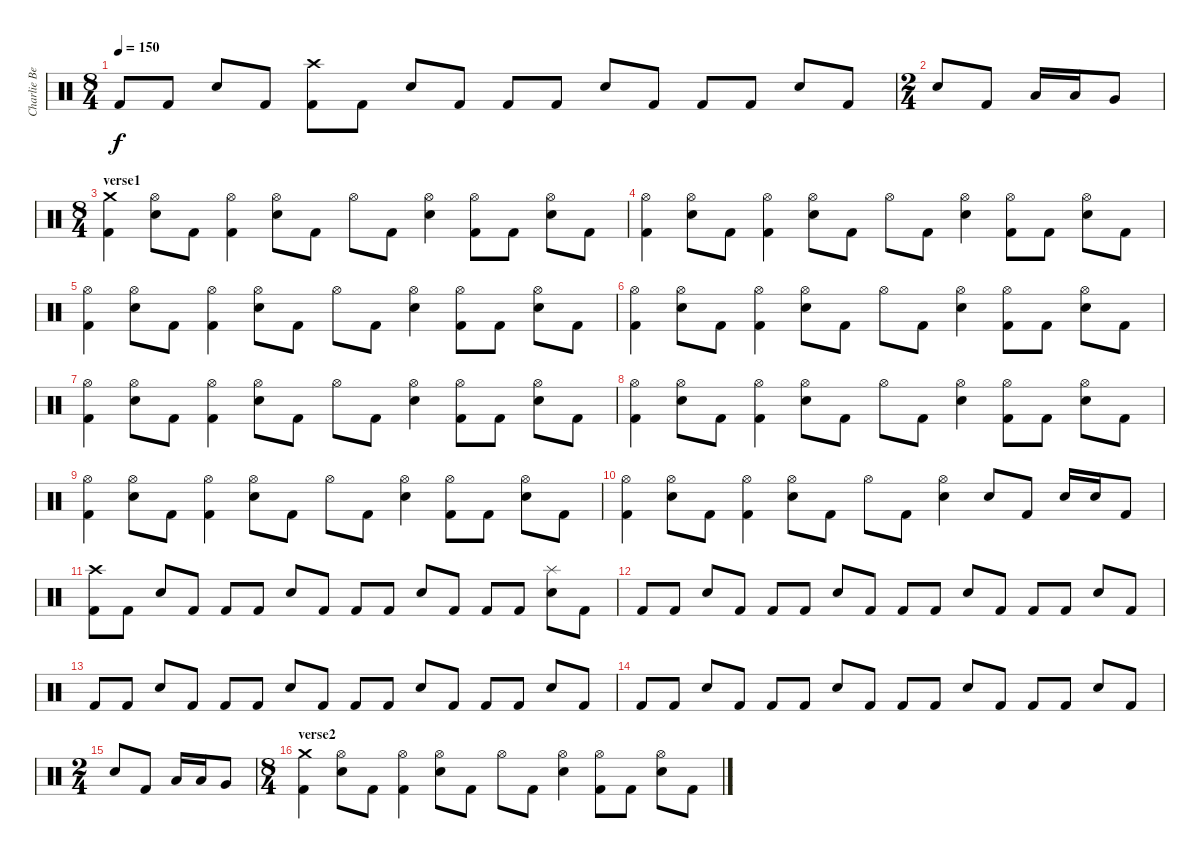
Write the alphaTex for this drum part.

\track ("Charlie Benante" "Charlie Be") {instrument percussion}
\staff {score}
\articulation defaults
\ts (8 4)
\tempo 150
\clef neutral
\ks c "Kick (hit) 2".8{dy f} "Kick (hit) 2".8 "Electric Snare (hit)".8 "Kick (hit) 2".8
("Crash high (hit)" "Kick (hit) 2").8 "Kick (hit) 2".8 "Electric Snare (hit)".8 "Kick (hit) 2".8 "Kick (hit) 2".8 "Kick (hit) 2".8 "Electric Snare (hit)".8 "Kick (hit) 2".8 "Kick (hit) 2".8 "Kick (hit) 2".8 "Electric Snare (hit)".8 "Kick (hit) 2".8 |
\ts (2 4)
"Electric Snare (hit)".8 "Kick (hit) 2".8 "Low Tom (hit)".16 "Low Tom (hit)".16 "Very Low Tom (hit)".8 |
\ts (8 4)
\section ("" "verse1")
("Crash medium (hit)" "Kick (hit) 2").4 ("Hi-Hat (open)" "Electric Snare (hit)").8 "Kick (hit) 2".8 ("Hi-Hat (open)" "Kick (hit) 2").4 ("Hi-Hat (open)" "Electric Snare (hit)").8 "Kick (hit) 2".8 "Hi-Hat (open)".8 "Kick (hit) 2".8 ("Hi-Hat (open)" "Electric Snare (hit)").4 ("Hi-Hat (open)" "Kick (hit) 2").8 "Kick (hit) 2".8 ("Hi-Hat (open)" "Electric Snare (hit)").8 "Kick (hit) 2".8 |
("Hi-Hat (open)" "Kick (hit) 2").4 ("Hi-Hat (open)" "Electric Snare (hit)").8 "Kick (hit) 2".8 ("Hi-Hat (open)" "Kick (hit) 2").4 ("Hi-Hat (open)" "Electric Snare (hit)").8 "Kick (hit) 2".8 "Hi-Hat (open)".8 "Kick (hit) 2".8 ("Hi-Hat (open)" "Electric Snare (hit)").4 ("Hi-Hat (open)" "Kick (hit) 2").8 "Kick (hit) 2".8 ("Hi-Hat (open)" "Electric Snare (hit)").8 "Kick (hit) 2".8 |
("Hi-Hat (open)" "Kick (hit) 2").4 ("Hi-Hat (open)" "Electric Snare (hit)").8 "Kick (hit) 2".8 ("Hi-Hat (open)" "Kick (hit) 2").4 ("Hi-Hat (open)" "Electric Snare (hit)").8 "Kick (hit) 2".8 "Hi-Hat (open)".8 "Kick (hit) 2".8 ("Hi-Hat (open)" "Electric Snare (hit)").4 ("Hi-Hat (open)" "Kick (hit) 2").8 "Kick (hit) 2".8 ("Hi-Hat (open)" "Electric Snare (hit)").8 "Kick (hit) 2".8 |
("Hi-Hat (open)" "Kick (hit) 2").4 ("Hi-Hat (open)" "Electric Snare (hit)").8 "Kick (hit) 2".8 ("Hi-Hat (open)" "Kick (hit) 2").4 ("Hi-Hat (open)" "Electric Snare (hit)").8 "Kick (hit) 2".8 "Hi-Hat (open)".8 "Kick (hit) 2".8 ("Hi-Hat (open)" "Electric Snare (hit)").4 ("Hi-Hat (open)" "Kick (hit) 2").8 "Kick (hit) 2".8 ("Hi-Hat (open)" "Electric Snare (hit)").8 "Kick (hit) 2".8 |
("Hi-Hat (open)" "Kick (hit) 2").4 ("Hi-Hat (open)" "Electric Snare (hit)").8 "Kick (hit) 2".8 ("Hi-Hat (open)" "Kick (hit) 2").4 ("Hi-Hat (open)" "Electric Snare (hit)").8 "Kick (hit) 2".8 "Hi-Hat (open)".8 "Kick (hit) 2".8 ("Hi-Hat (open)" "Electric Snare (hit)").4 ("Hi-Hat (open)" "Kick (hit) 2").8 "Kick (hit) 2".8 ("Hi-Hat (open)" "Electric Snare (hit)").8 "Kick (hit) 2".8 |
("Hi-Hat (open)" "Kick (hit) 2").4 ("Hi-Hat (open)" "Electric Snare (hit)").8 "Kick (hit) 2".8 ("Hi-Hat (open)" "Kick (hit) 2").4 ("Hi-Hat (open)" "Electric Snare (hit)").8 "Kick (hit) 2".8 "Hi-Hat (open)".8 "Kick (hit) 2".8 ("Hi-Hat (open)" "Electric Snare (hit)").4 ("Hi-Hat (open)" "Kick (hit) 2").8 "Kick (hit) 2".8 ("Hi-Hat (open)" "Electric Snare (hit)").8 "Kick (hit) 2".8 |
("Hi-Hat (open)" "Kick (hit) 2").4 ("Hi-Hat (open)" "Electric Snare (hit)").8 "Kick (hit) 2".8 ("Hi-Hat (open)" "Kick (hit) 2").4 ("Hi-Hat (open)" "Electric Snare (hit)").8 "Kick (hit) 2".8 "Hi-Hat (open)".8 "Kick (hit) 2".8 ("Hi-Hat (open)" "Electric Snare (hit)").4 ("Hi-Hat (open)" "Kick (hit) 2").8 "Kick (hit) 2".8 ("Hi-Hat (open)" "Electric Snare (hit)").8 "Kick (hit) 2".8 |
("Hi-Hat (open)" "Kick (hit) 2").4 ("Hi-Hat (open)" "Electric Snare (hit)").8 "Kick (hit) 2".8 ("Hi-Hat (open)" "Kick (hit) 2").4 ("Hi-Hat (open)" "Electric Snare (hit)").8 "Kick (hit) 2".8 "Hi-Hat (open)".8 "Kick (hit) 2".8 ("Hi-Hat (open)" "Electric Snare (hit)").4 "Electric Snare (hit)".8 "Kick (hit) 2".8 "Electric Snare (hit)".16 "Electric Snare (hit)".16 "Kick (hit) 2".8 |
("Crash high (hit)" "Kick (hit) 2").8 "Kick (hit) 2".8 "Electric Snare (hit)".8 "Kick (hit) 2".8 "Kick (hit) 2".8 "Kick (hit) 2".8 "Electric Snare (hit)".8 "Kick (hit) 2".8 "Kick (hit) 2".8 "Kick (hit) 2".8 "Electric Snare (hit)".8 "Kick (hit) 2".8 "Kick (hit) 2".8 "Kick (hit) 2".8 ("Splash (hit)" "Electric Snare (hit)").8 "Kick (hit) 2".8 |
"Kick (hit) 2".8 "Kick (hit) 2".8 "Electric Snare (hit)".8 "Kick (hit) 2".8 "Kick (hit) 2".8 "Kick (hit) 2".8 "Electric Snare (hit)".8 "Kick (hit) 2".8 "Kick (hit) 2".8 "Kick (hit) 2".8 "Electric Snare (hit)".8 "Kick (hit) 2".8 "Kick (hit) 2".8 "Kick (hit) 2".8 "Electric Snare (hit)".8 "Kick (hit) 2".8 |
"Kick (hit) 2".8 "Kick (hit) 2".8 "Electric Snare (hit)".8 "Kick (hit) 2".8 "Kick (hit) 2".8 "Kick (hit) 2".8 "Electric Snare (hit)".8 "Kick (hit) 2".8 "Kick (hit) 2".8 "Kick (hit) 2".8 "Electric Snare (hit)".8 "Kick (hit) 2".8 "Kick (hit) 2".8 "Kick (hit) 2".8 "Electric Snare (hit)".8 "Kick (hit) 2".8 |
"Kick (hit) 2".8 "Kick (hit) 2".8 "Electric Snare (hit)".8 "Kick (hit) 2".8 "Kick (hit) 2".8 "Kick (hit) 2".8 "Electric Snare (hit)".8 "Kick (hit) 2".8 "Kick (hit) 2".8 "Kick (hit) 2".8 "Electric Snare (hit)".8 "Kick (hit) 2".8 "Kick (hit) 2".8 "Kick (hit) 2".8 "Electric Snare (hit)".8 "Kick (hit) 2".8 |
\ts (2 4)
"Electric Snare (hit)".8 "Kick (hit) 2".8 "Low Tom (hit)".16 "Low Tom (hit)".16 "Very Low Tom (hit)".8 |
\ts (8 4)
\section ("" "verse2")
("Crash medium (hit)" "Kick (hit) 2").4 ("Hi-Hat (open)" "Electric Snare (hit)").8 "Kick (hit) 2".8 ("Hi-Hat (open)" "Kick (hit) 2").4 ("Hi-Hat (open)" "Electric Snare (hit)").8 "Kick (hit) 2".8 "Hi-Hat (open)".8 "Kick (hit) 2".8 ("Hi-Hat (open)" "Electric Snare (hit)").4 ("Hi-Hat (open)" "Kick (hit) 2").8 "Kick (hit) 2".8 ("Hi-Hat (open)" "Electric Snare (hit)").8 "Kick (hit) 2".8
